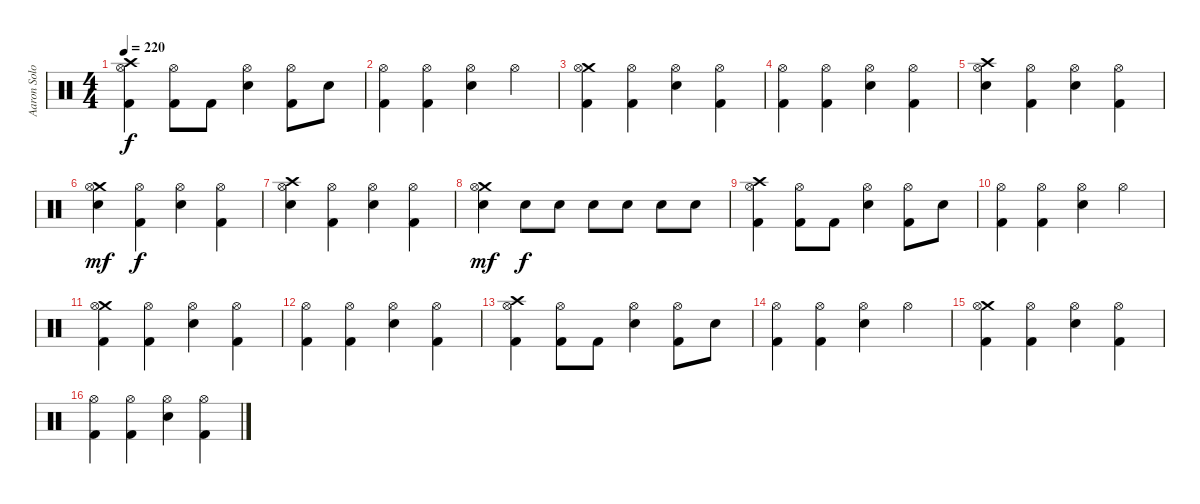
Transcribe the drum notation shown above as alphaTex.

\track ("Aaron Solowoniuk" "Aaron Solo") {instrument percussion}
\staff {score}
\articulation defaults
\ts (4 4)
\tempo 220
\clef neutral
\ks c
("Crash high (hit)" "Hi-Hat (open)" "Kick (hit) 2").4{dy f} ("Hi-Hat (open)" "Kick (hit) 2").8 "Kick (hit) 2".8 ("Hi-Hat (open)" "Snare (hit) 2").4 ("Hi-Hat (open)" "Kick (hit) 2").8 "Snare (hit) 2".8 |
("Hi-Hat (open)" "Kick (hit) 2").4 ("Hi-Hat (open)" "Kick (hit) 2").4 ("Hi-Hat (open)" "Snare (hit) 2").4 "Hi-Hat (open)".4 |
("Crash medium (hit)" "Hi-Hat (open)" "Kick (hit) 2").4 ("Hi-Hat (open)" "Kick (hit) 2").4 ("Hi-Hat (open)" "Snare (hit) 2").4 ("Hi-Hat (open)" "Kick (hit) 2").4 |
("Hi-Hat (open)" "Kick (hit) 2").4 ("Hi-Hat (open)" "Kick (hit) 2").4 ("Hi-Hat (open)" "Snare (hit) 2").4 ("Hi-Hat (open)" "Kick (hit) 2").4 |
("Crash high (hit)" "Hi-Hat (open)" "Snare (hit) 2").4 ("Hi-Hat (open)" "Kick (hit) 2").4 ("Hi-Hat (open)" "Snare (hit) 2").4 ("Hi-Hat (open)" "Kick (hit) 2").4 |
("Crash medium (hit)" "Hi-Hat (open)" "Snare (hit) 2").4{dy mf} ("Hi-Hat (open)" "Kick (hit) 2").4{dy f} ("Hi-Hat (open)" "Snare (hit) 2").4 ("Hi-Hat (open)" "Kick (hit) 2").4 |
("Crash high (hit)" "Hi-Hat (open)" "Snare (hit) 2").4 ("Hi-Hat (open)" "Kick (hit) 2").4 ("Hi-Hat (open)" "Snare (hit) 2").4 ("Hi-Hat (open)" "Kick (hit) 2").4 |
("Crash medium (hit)" "Hi-Hat (open)" "Snare (hit) 2").4{dy mf} "Snare (hit) 2".8{dy f} "Snare (hit) 2".8 "Snare (hit) 2".8 "Snare (hit) 2".8 "Snare (hit) 2".8 "Snare (hit) 2".8 |
("Crash high (hit)" "Hi-Hat (open)" "Kick (hit) 2").4 ("Hi-Hat (open)" "Kick (hit) 2").8 "Kick (hit) 2".8 ("Hi-Hat (open)" "Snare (hit) 2").4 ("Hi-Hat (open)" "Kick (hit) 2").8 "Snare (hit) 2".8 |
("Hi-Hat (open)" "Kick (hit) 2").4 ("Hi-Hat (open)" "Kick (hit) 2").4 ("Hi-Hat (open)" "Snare (hit) 2").4 "Hi-Hat (open)".4 |
("Crash medium (hit)" "Hi-Hat (open)" "Kick (hit) 2").4 ("Hi-Hat (open)" "Kick (hit) 2").4 ("Hi-Hat (open)" "Snare (hit) 2").4 ("Hi-Hat (open)" "Kick (hit) 2").4 |
("Hi-Hat (open)" "Kick (hit) 2").4 ("Hi-Hat (open)" "Kick (hit) 2").4 ("Hi-Hat (open)" "Snare (hit) 2").4 ("Hi-Hat (open)" "Kick (hit) 2").4 |
("Crash high (hit)" "Hi-Hat (open)" "Kick (hit) 2").4 ("Hi-Hat (open)" "Kick (hit) 2").8 "Kick (hit) 2".8 ("Hi-Hat (open)" "Snare (hit) 2").4 ("Hi-Hat (open)" "Kick (hit) 2").8 "Snare (hit) 2".8 |
("Hi-Hat (open)" "Kick (hit) 2").4 ("Hi-Hat (open)" "Kick (hit) 2").4 ("Hi-Hat (open)" "Snare (hit) 2").4 "Hi-Hat (open)".4 |
("Crash medium (hit)" "Hi-Hat (open)" "Kick (hit) 2").4 ("Hi-Hat (open)" "Kick (hit) 2").4 ("Hi-Hat (open)" "Snare (hit) 2").4 ("Hi-Hat (open)" "Kick (hit) 2").4 |
("Hi-Hat (open)" "Kick (hit) 2").4 ("Hi-Hat (open)" "Kick (hit) 2").4 ("Hi-Hat (open)" "Snare (hit) 2").4 ("Hi-Hat (open)" "Kick (hit) 2").4
